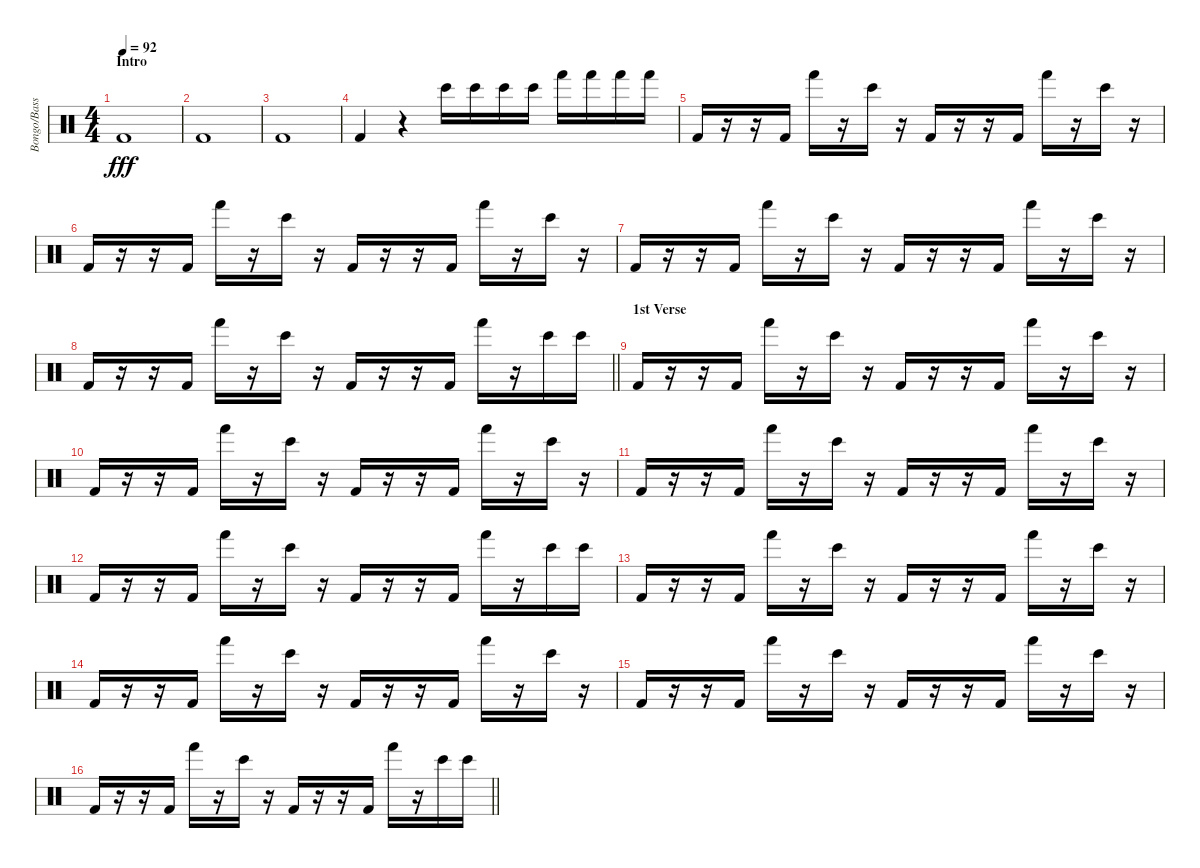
\track ("Bongo/Bass Drum" "Bongo/Bass") {instrument percussion}
\staff
\articulation defaults
\ts (4 4)
\section ("" "Intro")
\tempo 92
\clef neutral
\ks c "Kick (hit) 2".1{dy fff}
|
"Kick (hit) 2".1 |
"Kick (hit) 2".1 |
"Kick (hit) 2".4 r.4 "Bongo High (hit)".16 "Bongo High (hit)".16 "Bongo High (hit)".16 "Bongo High (hit)".16 "Hand (hit)".16 "Hand (hit)".16 "Hand (hit)".16 "Hand (hit)".16 |
"Kick (hit) 2".16 r.16 r.16 "Kick (hit) 2".16 "Hand (hit)".16 r.16 "Bongo High (hit)".16 r.16 "Kick (hit) 2".16 r.16 r.16 "Kick (hit) 2".16 "Hand (hit)".16 r.16 "Bongo High (hit)".16 r.16 |
"Kick (hit) 2".16 r.16 r.16 "Kick (hit) 2".16 "Hand (hit)".16 r.16 "Bongo High (hit)".16 r.16 "Kick (hit) 2".16 r.16 r.16 "Kick (hit) 2".16 "Hand (hit)".16 r.16 "Bongo High (hit)".16 r.16 |
"Kick (hit) 2".16 r.16 r.16 "Kick (hit) 2".16 "Hand (hit)".16 r.16 "Bongo High (hit)".16 r.16 "Kick (hit) 2".16 r.16 r.16 "Kick (hit) 2".16 "Hand (hit)".16 r.16 "Bongo High (hit)".16 r.16 |
\barLineRight lightlight "Kick (hit) 2".16
r.16 r.16 "Kick (hit) 2".16 "Hand (hit)".16 r.16 "Bongo High (hit)".16 r.16 "Kick (hit) 2".16 r.16 r.16 "Kick (hit) 2".16 "Hand (hit)".16 r.16 "Bongo High (hit)".16 "Bongo High (hit)".16 |
\section ("" "1st Verse")
"Kick (hit) 2".16 r.16 r.16 "Kick (hit) 2".16 "Hand (hit)".16 r.16 "Bongo High (hit)".16 r.16 "Kick (hit) 2".16 r.16 r.16 "Kick (hit) 2".16 "Hand (hit)".16 r.16 "Bongo High (hit)".16 r.16 |
"Kick (hit) 2".16 r.16 r.16 "Kick (hit) 2".16 "Hand (hit)".16 r.16 "Bongo High (hit)".16 r.16 "Kick (hit) 2".16 r.16 r.16 "Kick (hit) 2".16 "Hand (hit)".16 r.16 "Bongo High (hit)".16 r.16 |
"Kick (hit) 2".16 r.16 r.16 "Kick (hit) 2".16 "Hand (hit)".16 r.16 "Bongo High (hit)".16 r.16 "Kick (hit) 2".16 r.16 r.16 "Kick (hit) 2".16 "Hand (hit)".16 r.16 "Bongo High (hit)".16 r.16 |
"Kick (hit) 2".16 r.16 r.16 "Kick (hit) 2".16 "Hand (hit)".16 r.16 "Bongo High (hit)".16 r.16 "Kick (hit) 2".16 r.16 r.16 "Kick (hit) 2".16 "Hand (hit)".16 r.16 "Bongo High (hit)".16 "Bongo High (hit)".16 |
"Kick (hit) 2".16 r.16 r.16 "Kick (hit) 2".16 "Hand (hit)".16 r.16 "Bongo High (hit)".16 r.16 "Kick (hit) 2".16 r.16 r.16 "Kick (hit) 2".16 "Hand (hit)".16 r.16 "Bongo High (hit)".16 r.16 |
"Kick (hit) 2".16 r.16 r.16 "Kick (hit) 2".16 "Hand (hit)".16 r.16 "Bongo High (hit)".16 r.16 "Kick (hit) 2".16 r.16 r.16 "Kick (hit) 2".16 "Hand (hit)".16 r.16 "Bongo High (hit)".16 r.16 |
"Kick (hit) 2".16 r.16 r.16 "Kick (hit) 2".16 "Hand (hit)".16 r.16 "Bongo High (hit)".16 r.16 "Kick (hit) 2".16 r.16 r.16 "Kick (hit) 2".16 "Hand (hit)".16 r.16 "Bongo High (hit)".16 r.16 |
\barLineRight lightlight "Kick (hit) 2".16
r.16 r.16 "Kick (hit) 2".16 "Hand (hit)".16 r.16 "Bongo High (hit)".16 r.16 "Kick (hit) 2".16 r.16 r.16 "Kick (hit) 2".16 "Hand (hit)".16 r.16 "Bongo High (hit)".16 "Bongo High (hit)".16
